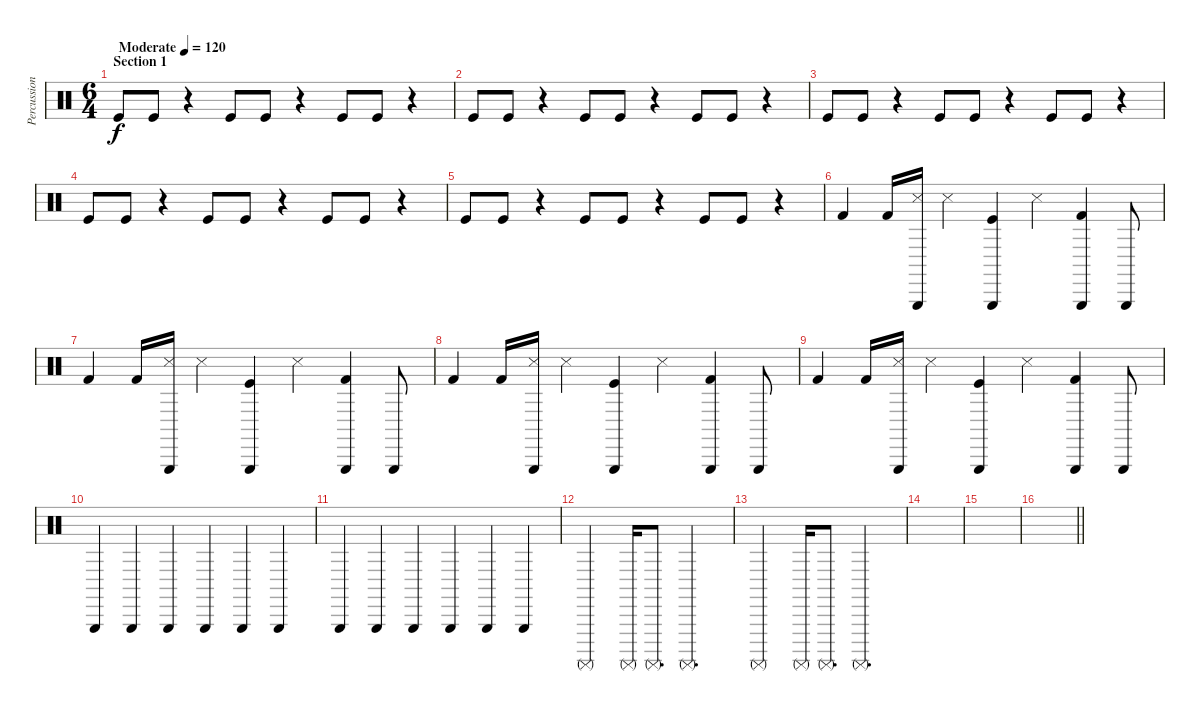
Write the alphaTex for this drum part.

\track ("Percussion" "Percussion") {instrument percussion}
\staff {score}
\articulation defaults
\ts (6 4)
\section ("" "Section 1")
\tempo (120 "Moderate")
\clef neutral
\ks c "Kick (hit)".8{dy f} "Kick (hit)".8
r.4 "Kick (hit)".8 "Kick (hit)".8 r.4 "Kick (hit)".8 "Kick (hit)".8 r.4 |
"Kick (hit)".8 "Kick (hit)".8 r.4 "Kick (hit)".8 "Kick (hit)".8 r.4 "Kick (hit)".8 "Kick (hit)".8 r.4 |
"Kick (hit)".8 "Kick (hit)".8 r.4 "Kick (hit)".8 "Kick (hit)".8 r.4 "Kick (hit)".8 "Kick (hit)".8 r.4 |
"Kick (hit)".8 "Kick (hit)".8 r.4 "Kick (hit)".8 "Kick (hit)".8 r.4 "Kick (hit)".8 "Kick (hit)".8 r.4 |
"Kick (hit)".8 "Kick (hit)".8 r.4 "Kick (hit)".8 "Kick (hit)".8 r.4 "Kick (hit)".8 "Kick (hit)".8 r.4 |
"Kick (hit) 2".4 "Kick (hit) 2".16 ("Triangle (hit)" "Snare (side stick) 3").16 "Metronome (hit)".4 ("Triangle (hit)" "Kick (hit)").4 "Snare (side stick) 3".4 ("Triangle (hit)" "Kick (hit) 2").4 "Triangle (hit)".8 |
"Kick (hit) 2".4 "Kick (hit) 2".16 ("Triangle (hit)" "Snare (side stick) 3").16 "Metronome (hit)".4 ("Triangle (hit)" "Kick (hit)").4 "Snare (side stick) 3".4 ("Triangle (hit)" "Kick (hit) 2").4 "Triangle (hit)".8 |
"Kick (hit) 2".4 "Kick (hit) 2".16 ("Triangle (hit)" "Snare (side stick) 3").16 "Metronome (hit)".4 ("Triangle (hit)" "Kick (hit)").4 "Snare (side stick) 3".4 ("Triangle (hit)" "Kick (hit) 2").4 "Triangle (hit)".8 |
"Kick (hit) 2".4 "Kick (hit) 2".16 ("Triangle (hit)" "Snare (side stick) 3").16 "Metronome (hit)".4 ("Triangle (hit)" "Kick (hit)").4 "Snare (side stick) 3".4 ("Triangle (hit)" "Kick (hit) 2").4 "Triangle (hit)".8 |
"Triangle (hit)".4 "Triangle (hit)".4 "Triangle (hit)".4 "Triangle (hit)".4 "Triangle (hit)".4 "Triangle (hit)".4 |
"Triangle (hit)".4 "Triangle (hit)".4 "Triangle (hit)".4 "Triangle (hit)".4 "Triangle (hit)".4 "Triangle (hit)".4 |
"Surdo (mute)".2 "Surdo (mute)".16 "Surdo (mute)".8{d} "Surdo (mute)".2{d} |
"Surdo (mute)".2 "Surdo (mute)".16 "Surdo (mute)".8{d} "Surdo (mute)".2{d} |
|
|
\barLineRight lightlight
